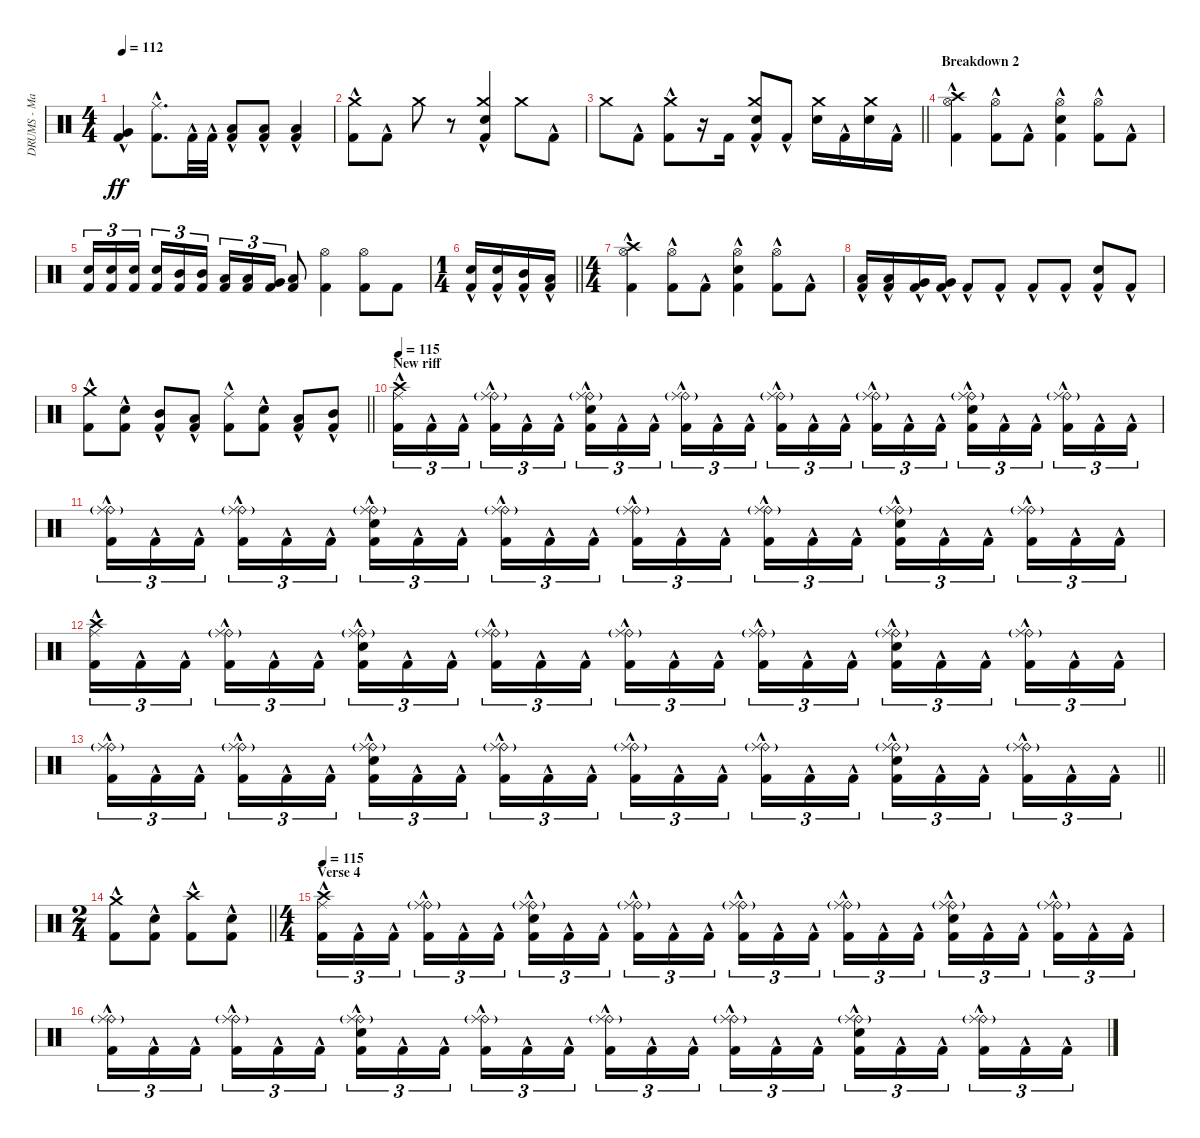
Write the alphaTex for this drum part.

\track ("DRUMS - Mario Duplantier" "DRUMS - Ma") {instrument percussion}
\staff {score}
\articulation defaults
\ts (4 4)
\tempo 112
\clef neutral
\ks c
("Very Low Tom (hit)" "Kick (hit) 2"{hac}).4{dy ff} ("Ride (middle)" "Kick (hit) 2"{hac}).8{d} "Kick (hit) 2"{hac}.32 "Kick (hit) 2"{hac}.32 ("Low Tom (hit)" "Kick (hit) 2"{hac}).8 ("Low Tom (hit)" "Kick (hit) 2"{hac}).8 ("Low Tom (hit)" "Kick (hit) 2"{hac}).4 |
("Crash medium (hit)" "Kick (hit) 2"{hac}).8 "Kick (hit) 2"{hac}.8 "Crash medium (hit)".8 r.8 ("Crash medium (hit)" "Electric Snare (hit)" "Kick (hit) 2"{hac}).4 "Crash medium (hit)".8 "Kick (hit) 2"{hac}.8 |
\barLineRight lightlight "Crash medium (hit)".8 "Kick (hit) 2"{hac}.8
("Crash medium (hit)" "Kick (hit) 2"{hac}).8 r.16 "Kick (hit) 2".16 ("Crash medium (hit)" "Electric Snare (hit)" "Kick (hit) 2"{hac}).8 "Kick (hit) 2"{hac}.8 ("Crash medium (hit)" "Electric Snare (hit)").16 "Kick (hit) 2"{hac}.16 ("Crash medium (hit)" "Electric Snare (hit)").16 "Kick (hit) 2"{hac}.16 |
\section ("" "Breakdown 2")
("Crash high (hit)" "Hi-Hat (open)"{hac} "Kick (hit) 2"{hac}).4 ("Hi-Hat (open)"{hac} "Kick (hit) 2"{hac}).8 "Kick (hit) 2"{hac}.8 ("Hi-Hat (open)"{hac} "Electric Snare (hit)" "Kick (hit) 2"{hac}).4 ("Hi-Hat (open)"{hac} "Kick (hit) 2"{hac}).8 "Kick (hit) 2"{hac}.8 |
("Electric Snare (hit)" "Kick (hit) 2").16{tu (3 2)} ("Electric Snare (hit)" "Kick (hit) 2").16{tu (3 2)} ("Electric Snare (hit)" "Kick (hit) 2").16{tu (3 2) beam splitsecondary} ("Electric Snare (hit)" "Kick (hit) 2").16{tu (3 2)} ("Mid Tom (hit)" "Kick (hit) 2").16{tu (3 2)} ("Mid Tom (hit)" "Kick (hit) 2").16{tu (3 2)} ("Low Tom (hit)" "Kick (hit) 2").16{tu (3 2)} ("Low Tom (hit)" "Kick (hit) 2").16{tu (3 2)} ("Very Low Tom (hit)" "Kick (hit) 2").16{tu (3 2)} ("Low Floor Tom (hit)" "Kick (hit) 2").8 ("Hi-Hat (open)" "Kick (hit) 2").4 ("Hi-Hat (open)" "Kick (hit) 2").8 "Kick (hit) 2".8 |
\ts (1 4)
\barLineRight lightlight
("Electric Snare (hit)" "Kick (hit) 2"{hac}).16 ("Electric Snare (hit)" "Kick (hit) 2"{hac}).16 ("Mid Tom (hit)" "Kick (hit) 2"{hac}).16 ("Low Tom (hit)" "Kick (hit) 2"{hac}).16 |
\ts (4 4)
("Crash high (hit)" "Hi-Hat (open)"{hac} "Kick (hit) 2"{hac}).4 ("Hi-Hat (open)"{hac} "Kick (hit) 2"{hac}).8 "Kick (hit) 2"{hac}.8 ("Hi-Hat (open)"{hac} "Electric Snare (hit)" "Kick (hit) 2"{hac}).4 ("Hi-Hat (open)"{hac} "Kick (hit) 2"{hac}).8 "Kick (hit) 2"{hac}.8 |
("Low Tom (hit)" "Kick (hit) 2"{hac}).16 ("Low Tom (hit)" "Kick (hit) 2"{hac}).16 ("Very Low Tom (hit)" "Kick (hit) 2"{hac}).16 ("Very Low Tom (hit)" "Kick (hit) 2"{hac}).16 "Kick (hit) 2"{hac}.8 "Kick (hit) 2"{hac}.8 "Kick (hit) 2"{hac}.8 "Kick (hit) 2"{hac}.8 ("Electric Snare (hit)" "Kick (hit) 2"{hac}).8 "Kick (hit) 2"{hac}.8 |
\barLineRight lightlight
("Crash medium (hit)" "Kick (hit) 2"{hac}).8 ("Electric Snare (hit)" "Kick (hit) 2"{hac}).8 ("Mid Tom (hit)" "Kick (hit) 2"{hac}).8 ("Low Tom (hit)" "Kick (hit) 2"{hac}).8 ("Ride (middle)" "Kick (hit) 2"{hac}).8 ("Electric Snare (hit)" "Kick (hit) 2"{hac}).8 ("Low Tom (hit)" "Kick (hit) 2"{hac}).8 ("Mid Tom (hit)" "Kick (hit) 2"{hac}).8 |
\section ("" "New riff")
\tempo 115
("Crash high (hit)" "Ride (middle)" "Kick (hit) 2"{hac}).16{tu (3 2)} "Kick (hit) 2"{hac}.16{tu (3 2)} "Kick (hit) 2"{hac}.16{tu (3 2) beam splitsecondary} ("Ride (bell)"{g} "Ride (middle)" "Kick (hit) 2"{hac}).16{tu (3 2)} "Kick (hit) 2"{hac}.16{tu (3 2)} "Kick (hit) 2"{hac}.16{tu (3 2)} ("Ride (bell)"{g} "Ride (middle)" "Electric Snare (hit)" "Kick (hit) 2"{hac}).16{tu (3 2)} "Kick (hit) 2"{hac}.16{tu (3 2)} "Kick (hit) 2"{hac}.16{tu (3 2) beam splitsecondary} ("Ride (bell)"{g} "Ride (middle)" "Kick (hit) 2"{hac}).16{tu (3 2)} "Kick (hit) 2"{hac}.16{tu (3 2)} "Kick (hit) 2"{hac}.16{tu (3 2)} ("Ride (bell)"{g} "Ride (middle)" "Kick (hit) 2"{hac}).16{tu (3 2)} "Kick (hit) 2"{hac}.16{tu (3 2)} "Kick (hit) 2"{hac}.16{tu (3 2) beam splitsecondary} ("Ride (bell)"{g} "Ride (middle)" "Kick (hit) 2"{hac}).16{tu (3 2)} "Kick (hit) 2"{hac}.16{tu (3 2)} "Kick (hit) 2"{hac}.16{tu (3 2)} ("Ride (bell)"{g} "Ride (middle)" "Electric Snare (hit)" "Kick (hit) 2"{hac}).16{tu (3 2)} "Kick (hit) 2"{hac}.16{tu (3 2)} "Kick (hit) 2"{hac}.16{tu (3 2) beam splitsecondary} ("Ride (bell)"{g} "Ride (middle)" "Kick (hit) 2"{hac}).16{tu (3 2)} "Kick (hit) 2"{hac}.16{tu (3 2)} "Kick (hit) 2"{hac}.16{tu (3 2)} |
("Ride (bell)"{g} "Ride (middle)" "Kick (hit) 2"{hac}).16{tu (3 2)} "Kick (hit) 2"{hac}.16{tu (3 2)} "Kick (hit) 2"{hac}.16{tu (3 2) beam splitsecondary} ("Ride (bell)"{g} "Ride (middle)" "Kick (hit) 2"{hac}).16{tu (3 2)} "Kick (hit) 2"{hac}.16{tu (3 2)} "Kick (hit) 2"{hac}.16{tu (3 2)} ("Ride (bell)"{g} "Ride (middle)" "Electric Snare (hit)" "Kick (hit) 2"{hac}).16{tu (3 2)} "Kick (hit) 2"{hac}.16{tu (3 2)} "Kick (hit) 2"{hac}.16{tu (3 2) beam splitsecondary} ("Ride (bell)"{g} "Ride (middle)" "Kick (hit) 2"{hac}).16{tu (3 2)} "Kick (hit) 2"{hac}.16{tu (3 2)} "Kick (hit) 2"{hac}.16{tu (3 2)} ("Ride (bell)"{g} "Ride (middle)" "Kick (hit) 2"{hac}).16{tu (3 2)} "Kick (hit) 2"{hac}.16{tu (3 2)} "Kick (hit) 2"{hac}.16{tu (3 2) beam splitsecondary} ("Ride (bell)"{g} "Ride (middle)" "Kick (hit) 2"{hac}).16{tu (3 2)} "Kick (hit) 2"{hac}.16{tu (3 2)} "Kick (hit) 2"{hac}.16{tu (3 2)} ("Ride (bell)"{g} "Ride (middle)" "Electric Snare (hit)" "Kick (hit) 2"{hac}).16{tu (3 2)} "Kick (hit) 2"{hac}.16{tu (3 2)} "Kick (hit) 2"{hac}.16{tu (3 2) beam splitsecondary} ("Ride (bell)"{g} "Ride (middle)" "Kick (hit) 2"{hac}).16{tu (3 2)} "Kick (hit) 2"{hac}.16{tu (3 2)} "Kick (hit) 2"{hac}.16{tu (3 2)} |
("Crash high (hit)" "Ride (middle)" "Kick (hit) 2"{hac}).16{tu (3 2)} "Kick (hit) 2"{hac}.16{tu (3 2)} "Kick (hit) 2"{hac}.16{tu (3 2) beam splitsecondary} ("Ride (bell)"{g} "Ride (middle)" "Kick (hit) 2"{hac}).16{tu (3 2)} "Kick (hit) 2"{hac}.16{tu (3 2)} "Kick (hit) 2"{hac}.16{tu (3 2)} ("Ride (bell)"{g} "Ride (middle)" "Electric Snare (hit)" "Kick (hit) 2"{hac}).16{tu (3 2)} "Kick (hit) 2"{hac}.16{tu (3 2)} "Kick (hit) 2"{hac}.16{tu (3 2) beam splitsecondary} ("Ride (bell)"{g} "Ride (middle)" "Kick (hit) 2"{hac}).16{tu (3 2)} "Kick (hit) 2"{hac}.16{tu (3 2)} "Kick (hit) 2"{hac}.16{tu (3 2)} ("Ride (bell)"{g} "Ride (middle)" "Kick (hit) 2"{hac}).16{tu (3 2)} "Kick (hit) 2"{hac}.16{tu (3 2)} "Kick (hit) 2"{hac}.16{tu (3 2) beam splitsecondary} ("Ride (bell)"{g} "Ride (middle)" "Kick (hit) 2"{hac}).16{tu (3 2)} "Kick (hit) 2"{hac}.16{tu (3 2)} "Kick (hit) 2"{hac}.16{tu (3 2)} ("Ride (bell)"{g} "Ride (middle)" "Electric Snare (hit)" "Kick (hit) 2"{hac}).16{tu (3 2)} "Kick (hit) 2"{hac}.16{tu (3 2)} "Kick (hit) 2"{hac}.16{tu (3 2) beam splitsecondary} ("Ride (bell)"{g} "Ride (middle)" "Kick (hit) 2"{hac}).16{tu (3 2)} "Kick (hit) 2"{hac}.16{tu (3 2)} "Kick (hit) 2"{hac}.16{tu (3 2)} |
\barLineRight lightlight
("Ride (bell)"{g} "Ride (middle)" "Kick (hit) 2"{hac}).16{tu (3 2)} "Kick (hit) 2"{hac}.16{tu (3 2)} "Kick (hit) 2"{hac}.16{tu (3 2) beam splitsecondary} ("Ride (bell)"{g} "Ride (middle)" "Kick (hit) 2"{hac}).16{tu (3 2)} "Kick (hit) 2"{hac}.16{tu (3 2)} "Kick (hit) 2"{hac}.16{tu (3 2)} ("Ride (bell)"{g} "Ride (middle)" "Electric Snare (hit)" "Kick (hit) 2"{hac}).16{tu (3 2)} "Kick (hit) 2"{hac}.16{tu (3 2)} "Kick (hit) 2"{hac}.16{tu (3 2) beam splitsecondary} ("Ride (bell)"{g} "Ride (middle)" "Kick (hit) 2"{hac}).16{tu (3 2)} "Kick (hit) 2"{hac}.16{tu (3 2)} "Kick (hit) 2"{hac}.16{tu (3 2)} ("Ride (bell)"{g} "Ride (middle)" "Kick (hit) 2"{hac}).16{tu (3 2)} "Kick (hit) 2"{hac}.16{tu (3 2)} "Kick (hit) 2"{hac}.16{tu (3 2) beam splitsecondary} ("Ride (bell)"{g} "Ride (middle)" "Kick (hit) 2"{hac}).16{tu (3 2)} "Kick (hit) 2"{hac}.16{tu (3 2)} "Kick (hit) 2"{hac}.16{tu (3 2)} ("Ride (bell)"{g} "Ride (middle)" "Electric Snare (hit)" "Kick (hit) 2"{hac}).16{tu (3 2)} "Kick (hit) 2"{hac}.16{tu (3 2)} "Kick (hit) 2"{hac}.16{tu (3 2) beam splitsecondary} ("Ride (bell)"{g} "Ride (middle)" "Kick (hit) 2"{hac}).16{tu (3 2)} "Kick (hit) 2"{hac}.16{tu (3 2)} "Kick (hit) 2"{hac}.16{tu (3 2)} |
\ts (2 4)
\section ("" "")
\barLineRight lightlight
("Crash medium (hit)" "Kick (hit) 2"{hac}).8 ("Electric Snare (hit)" "Kick (hit) 2"{hac}).8 ("Crash high (hit)" "Kick (hit) 2"{hac}).8 ("Electric Snare (hit)" "Kick (hit) 2"{hac}).8 |
\ts (4 4)
\section ("" "Verse 4")
\tempo 115
("Crash high (hit)" "Ride (middle)" "Kick (hit) 2"{hac}).16{tu (3 2)} "Kick (hit) 2"{hac}.16{tu (3 2)} "Kick (hit) 2"{hac}.16{tu (3 2) beam splitsecondary} ("Ride (bell)"{g} "Ride (middle)" "Kick (hit) 2"{hac}).16{tu (3 2)} "Kick (hit) 2"{hac}.16{tu (3 2)} "Kick (hit) 2"{hac}.16{tu (3 2)} ("Ride (bell)"{g} "Ride (middle)" "Electric Snare (hit)" "Kick (hit) 2"{hac}).16{tu (3 2)} "Kick (hit) 2"{hac}.16{tu (3 2)} "Kick (hit) 2"{hac}.16{tu (3 2) beam splitsecondary} ("Ride (bell)"{g} "Ride (middle)" "Kick (hit) 2"{hac}).16{tu (3 2)} "Kick (hit) 2"{hac}.16{tu (3 2)} "Kick (hit) 2"{hac}.16{tu (3 2)} ("Ride (bell)"{g} "Ride (middle)" "Kick (hit) 2"{hac}).16{tu (3 2)} "Kick (hit) 2"{hac}.16{tu (3 2)} "Kick (hit) 2"{hac}.16{tu (3 2) beam splitsecondary} ("Ride (bell)"{g} "Ride (middle)" "Kick (hit) 2"{hac}).16{tu (3 2)} "Kick (hit) 2"{hac}.16{tu (3 2)} "Kick (hit) 2"{hac}.16{tu (3 2)} ("Ride (bell)"{g} "Ride (middle)" "Electric Snare (hit)" "Kick (hit) 2"{hac}).16{tu (3 2)} "Kick (hit) 2"{hac}.16{tu (3 2)} "Kick (hit) 2"{hac}.16{tu (3 2) beam splitsecondary} ("Ride (bell)"{g} "Ride (middle)" "Kick (hit) 2"{hac}).16{tu (3 2)} "Kick (hit) 2"{hac}.16{tu (3 2)} "Kick (hit) 2"{hac}.16{tu (3 2)} |
("Ride (bell)"{g} "Ride (middle)" "Kick (hit) 2"{hac}).16{tu (3 2)} "Kick (hit) 2"{hac}.16{tu (3 2)} "Kick (hit) 2"{hac}.16{tu (3 2) beam splitsecondary} ("Ride (bell)"{g} "Ride (middle)" "Kick (hit) 2"{hac}).16{tu (3 2)} "Kick (hit) 2"{hac}.16{tu (3 2)} "Kick (hit) 2"{hac}.16{tu (3 2)} ("Ride (bell)"{g} "Ride (middle)" "Electric Snare (hit)" "Kick (hit) 2"{hac}).16{tu (3 2)} "Kick (hit) 2"{hac}.16{tu (3 2)} "Kick (hit) 2"{hac}.16{tu (3 2) beam splitsecondary} ("Ride (bell)"{g} "Ride (middle)" "Kick (hit) 2"{hac}).16{tu (3 2)} "Kick (hit) 2"{hac}.16{tu (3 2)} "Kick (hit) 2"{hac}.16{tu (3 2)} ("Ride (bell)"{g} "Ride (middle)" "Kick (hit) 2"{hac}).16{tu (3 2)} "Kick (hit) 2"{hac}.16{tu (3 2)} "Kick (hit) 2"{hac}.16{tu (3 2) beam splitsecondary} ("Ride (bell)"{g} "Ride (middle)" "Kick (hit) 2"{hac}).16{tu (3 2)} "Kick (hit) 2"{hac}.16{tu (3 2)} "Kick (hit) 2"{hac}.16{tu (3 2)} ("Ride (bell)"{g} "Ride (middle)" "Electric Snare (hit)" "Kick (hit) 2"{hac}).16{tu (3 2)} "Kick (hit) 2"{hac}.16{tu (3 2)} "Kick (hit) 2"{hac}.16{tu (3 2) beam splitsecondary} ("Ride (bell)"{g} "Ride (middle)" "Kick (hit) 2"{hac}).16{tu (3 2)} "Kick (hit) 2"{hac}.16{tu (3 2)} "Kick (hit) 2"{hac}.16{tu (3 2)}
